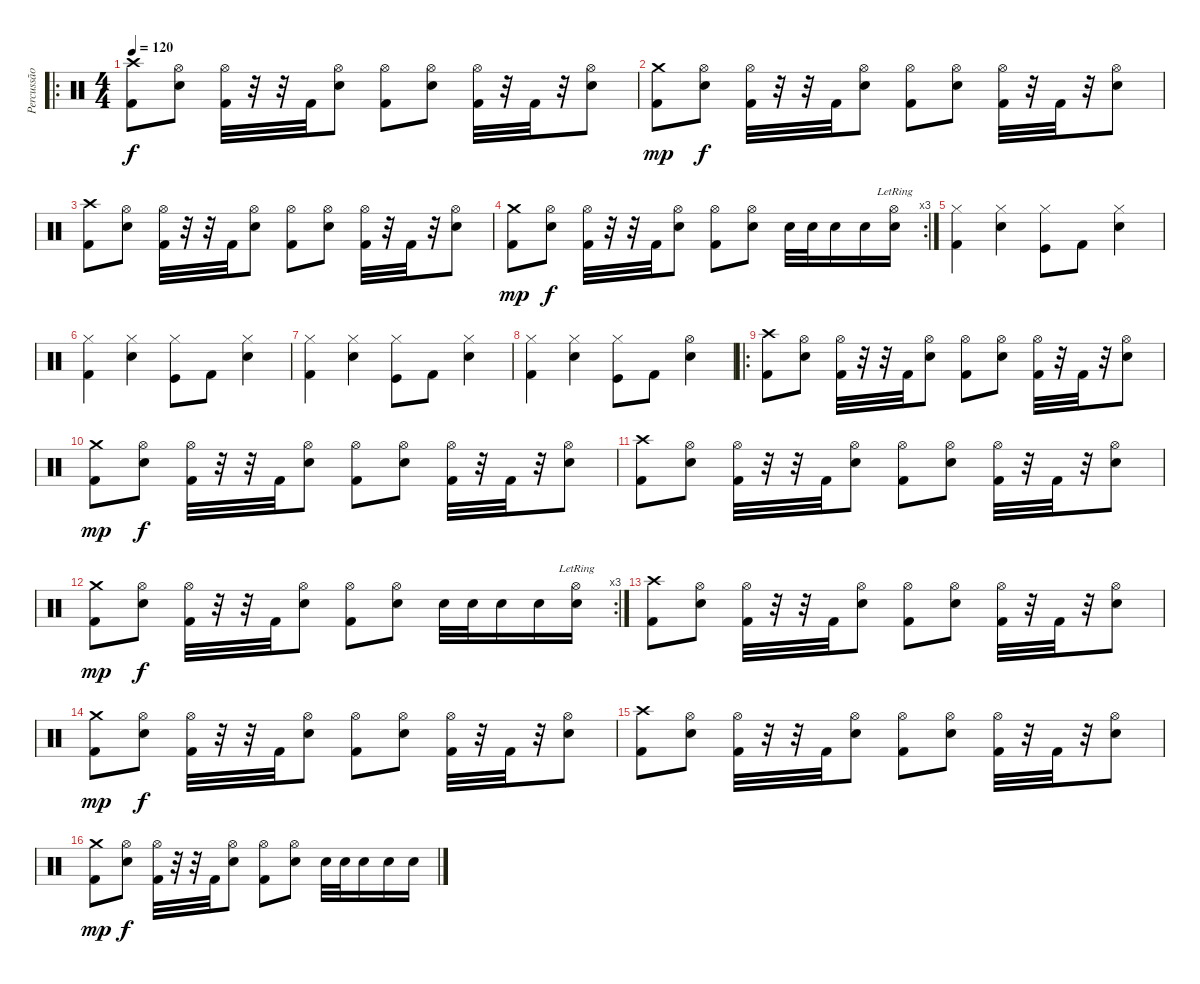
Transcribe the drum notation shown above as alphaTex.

\track ("Percussão" "Percussão") {instrument percussion}
\staff {score}
\articulation defaults
\ro
\ts (4 4)
\tempo 120
\clef neutral
\ks c
("Crash high (hit)" "Kick (hit) 2").8{dy f} ("Hi-Hat (open)" "Electric Snare (hit)").8 ("Hi-Hat (open)" "Kick (hit) 2").32 r.32 r.32 "Kick (hit) 2".32 ("Hi-Hat (open)" "Electric Snare (hit)").8 ("Hi-Hat (open)" "Kick (hit) 2").8 ("Hi-Hat (open)" "Electric Snare (hit)").8 ("Hi-Hat (open)" "Kick (hit) 2").32 r.32 "Kick (hit) 2".32 r.32 ("Hi-Hat (open)" "Electric Snare (hit)").8 |
("Crash medium (hit)" "Kick (hit) 2").8{dy mp} ("Hi-Hat (open)" "Electric Snare (hit)").8{dy f} ("Hi-Hat (open)" "Kick (hit) 2").32 r.32 r.32 "Kick (hit) 2".32 ("Hi-Hat (open)" "Electric Snare (hit)").8 ("Hi-Hat (open)" "Kick (hit) 2").8 ("Hi-Hat (open)" "Electric Snare (hit)").8 ("Hi-Hat (open)" "Kick (hit) 2").32 r.32 "Kick (hit) 2".32 r.32 ("Hi-Hat (open)" "Electric Snare (hit)").8 |
("Crash high (hit)" "Kick (hit) 2").8 ("Hi-Hat (open)" "Electric Snare (hit)").8 ("Hi-Hat (open)" "Kick (hit) 2").32 r.32 r.32 "Kick (hit) 2".32 ("Hi-Hat (open)" "Electric Snare (hit)").8 ("Hi-Hat (open)" "Kick (hit) 2").8 ("Hi-Hat (open)" "Electric Snare (hit)").8 ("Hi-Hat (open)" "Kick (hit) 2").32 r.32 "Kick (hit) 2".32 r.32 ("Hi-Hat (open)" "Electric Snare (hit)").8 |
\rc 3
("Crash medium (hit)" "Kick (hit) 2").8{dy mp} ("Hi-Hat (open)" "Electric Snare (hit)").8{dy f} ("Hi-Hat (open)" "Kick (hit) 2").32 r.32 r.32 "Kick (hit) 2".32 ("Hi-Hat (open)" "Electric Snare (hit)").8 ("Hi-Hat (open)" "Kick (hit) 2").8 ("Hi-Hat (open)" "Electric Snare (hit)").8 "Electric Snare (hit)".32 "Electric Snare (hit)".32 "Electric Snare (hit)".16 "Electric Snare (hit)".16 ("Electric Snare (hit)" "Hi-Hat (open)"{lr}).16 |
("Kick (hit) 2" "Hi-Hat (closed)").4 ("Electric Snare (hit)" "Hi-Hat (closed)").4 ("Kick (hit)" "Hi-Hat (closed)").8 "Kick (hit) 2".8 ("Electric Snare (hit)" "Hi-Hat (closed)").4 |
("Kick (hit) 2" "Hi-Hat (closed)").4 ("Electric Snare (hit)" "Hi-Hat (closed)").4 ("Kick (hit)" "Hi-Hat (closed)").8 "Kick (hit) 2".8 ("Electric Snare (hit)" "Hi-Hat (closed)").4 |
("Kick (hit) 2" "Hi-Hat (closed)").4 ("Electric Snare (hit)" "Hi-Hat (closed)").4 ("Kick (hit)" "Hi-Hat (closed)").8 "Kick (hit) 2".8 ("Electric Snare (hit)" "Hi-Hat (closed)").4 |
("Kick (hit) 2" "Hi-Hat (closed)").4 ("Electric Snare (hit)" "Hi-Hat (closed)").4 ("Kick (hit)" "Hi-Hat (closed)").8 "Kick (hit) 2".8 ("Electric Snare (hit)" "Hi-Hat (open)").4 |
\ro
("Crash high (hit)" "Kick (hit) 2").8 ("Hi-Hat (open)" "Electric Snare (hit)").8 ("Hi-Hat (open)" "Kick (hit) 2").32 r.32 r.32 "Kick (hit) 2".32 ("Hi-Hat (open)" "Electric Snare (hit)").8 ("Hi-Hat (open)" "Kick (hit) 2").8 ("Hi-Hat (open)" "Electric Snare (hit)").8 ("Hi-Hat (open)" "Kick (hit) 2").32 r.32 "Kick (hit) 2".32 r.32 ("Hi-Hat (open)" "Electric Snare (hit)").8 |
("Crash medium (hit)" "Kick (hit) 2").8{dy mp} ("Hi-Hat (open)" "Electric Snare (hit)").8{dy f} ("Hi-Hat (open)" "Kick (hit) 2").32 r.32 r.32 "Kick (hit) 2".32 ("Hi-Hat (open)" "Electric Snare (hit)").8 ("Hi-Hat (open)" "Kick (hit) 2").8 ("Hi-Hat (open)" "Electric Snare (hit)").8 ("Hi-Hat (open)" "Kick (hit) 2").32 r.32 "Kick (hit) 2".32 r.32 ("Hi-Hat (open)" "Electric Snare (hit)").8 |
("Crash high (hit)" "Kick (hit) 2").8 ("Hi-Hat (open)" "Electric Snare (hit)").8 ("Hi-Hat (open)" "Kick (hit) 2").32 r.32 r.32 "Kick (hit) 2".32 ("Hi-Hat (open)" "Electric Snare (hit)").8 ("Hi-Hat (open)" "Kick (hit) 2").8 ("Hi-Hat (open)" "Electric Snare (hit)").8 ("Hi-Hat (open)" "Kick (hit) 2").32 r.32 "Kick (hit) 2".32 r.32 ("Hi-Hat (open)" "Electric Snare (hit)").8 |
\rc 3
("Crash medium (hit)" "Kick (hit) 2").8{dy mp} ("Hi-Hat (open)" "Electric Snare (hit)").8{dy f} ("Hi-Hat (open)" "Kick (hit) 2").32 r.32 r.32 "Kick (hit) 2".32 ("Hi-Hat (open)" "Electric Snare (hit)").8 ("Hi-Hat (open)" "Kick (hit) 2").8 ("Hi-Hat (open)" "Electric Snare (hit)").8 "Electric Snare (hit)".32 "Electric Snare (hit)".32 "Electric Snare (hit)".16 "Electric Snare (hit)".16 ("Electric Snare (hit)" "Hi-Hat (open)"{lr}).16 |
("Crash high (hit)" "Kick (hit) 2").8 ("Hi-Hat (open)" "Electric Snare (hit)").8 ("Hi-Hat (open)" "Kick (hit) 2").32 r.32 r.32 "Kick (hit) 2".32 ("Hi-Hat (open)" "Electric Snare (hit)").8 ("Hi-Hat (open)" "Kick (hit) 2").8 ("Hi-Hat (open)" "Electric Snare (hit)").8 ("Hi-Hat (open)" "Kick (hit) 2").32 r.32 "Kick (hit) 2".32 r.32 ("Hi-Hat (open)" "Electric Snare (hit)").8 |
("Crash medium (hit)" "Kick (hit) 2").8{dy mp} ("Hi-Hat (open)" "Electric Snare (hit)").8{dy f} ("Hi-Hat (open)" "Kick (hit) 2").32 r.32 r.32 "Kick (hit) 2".32 ("Hi-Hat (open)" "Electric Snare (hit)").8 ("Hi-Hat (open)" "Kick (hit) 2").8 ("Hi-Hat (open)" "Electric Snare (hit)").8 ("Hi-Hat (open)" "Kick (hit) 2").32 r.32 "Kick (hit) 2".32 r.32 ("Hi-Hat (open)" "Electric Snare (hit)").8 |
("Crash high (hit)" "Kick (hit) 2").8 ("Hi-Hat (open)" "Electric Snare (hit)").8 ("Hi-Hat (open)" "Kick (hit) 2").32 r.32 r.32 "Kick (hit) 2".32 ("Hi-Hat (open)" "Electric Snare (hit)").8 ("Hi-Hat (open)" "Kick (hit) 2").8 ("Hi-Hat (open)" "Electric Snare (hit)").8 ("Hi-Hat (open)" "Kick (hit) 2").32 r.32 "Kick (hit) 2".32 r.32 ("Hi-Hat (open)" "Electric Snare (hit)").8 |
("Crash medium (hit)" "Kick (hit) 2").8{dy mp} ("Hi-Hat (open)" "Electric Snare (hit)").8{dy f} ("Hi-Hat (open)" "Kick (hit) 2").32 r.32 r.32 "Kick (hit) 2".32 ("Hi-Hat (open)" "Electric Snare (hit)").8 ("Hi-Hat (open)" "Kick (hit) 2").8 ("Hi-Hat (open)" "Electric Snare (hit)").8 "Electric Snare (hit)".32 "Electric Snare (hit)".32 "Electric Snare (hit)".16 "Electric Snare (hit)".16 "Electric Snare (hit)".16
